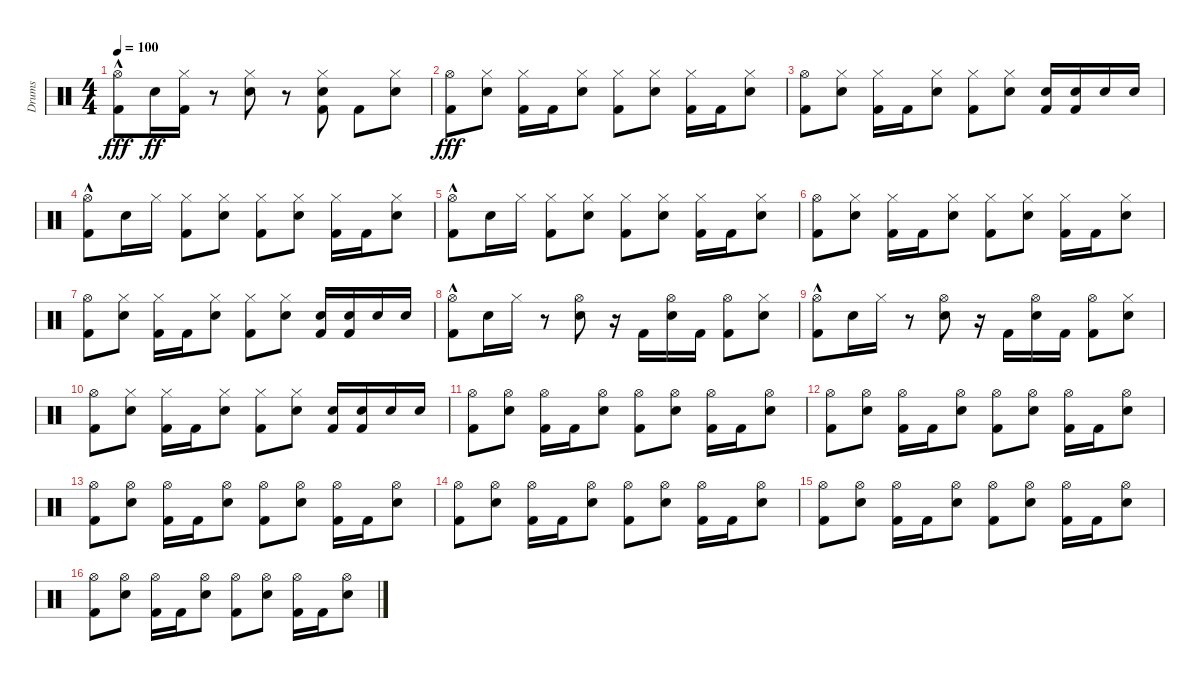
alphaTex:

\track ("Drums" "Drums") {instrument percussion}
\staff {score}
\articulation defaults
\ts (4 4)
\tempo 100
\clef neutral
\ks c
("Kick (hit) 2"{hac} "Hi-Hat (open)").8{dy fff} "Electric Snare (hit)".16{dy ff} ("Hi-Hat (closed)" "Kick (hit) 2").16 r.8 ("Hi-Hat (closed)" "Electric Snare (hit)").8 r.8 ("Hi-Hat (closed)" "Electric Snare (hit)" "Kick (hit) 2").8 "Kick (hit) 2".8 ("Hi-Hat (closed)" "Electric Snare (hit)").8 |
("Kick (hit) 2" "Hi-Hat (open)").8{dy fff} ("Hi-Hat (closed)" "Electric Snare (hit)").8 ("Hi-Hat (closed)" "Kick (hit) 2").16 "Kick (hit) 2".16 ("Hi-Hat (closed)" "Electric Snare (hit)").8 ("Kick (hit) 2" "Hi-Hat (closed)").8 ("Hi-Hat (closed)" "Electric Snare (hit)").8 ("Kick (hit) 2" "Hi-Hat (closed)").16 "Kick (hit) 2".16 ("Hi-Hat (closed)" "Electric Snare (hit)").8 |
("Kick (hit) 2" "Hi-Hat (open)").8 ("Hi-Hat (closed)" "Electric Snare (hit)").8 ("Hi-Hat (closed)" "Kick (hit) 2").16 "Kick (hit) 2".16 ("Hi-Hat (closed)" "Electric Snare (hit)").8 ("Kick (hit) 2" "Hi-Hat (closed)").8 ("Hi-Hat (closed)" "Electric Snare (hit)").8 ("Kick (hit) 2" "Electric Snare (hit)").16 ("Kick (hit) 2" "Electric Snare (hit)").16 "Electric Snare (hit)".16 "Electric Snare (hit)".16 |
("Hi-Hat (open)" "Kick (hit) 2"{hac}).8 "Electric Snare (hit)".16 "Hi-Hat (closed)".16 ("Hi-Hat (closed)" "Kick (hit) 2").8 ("Hi-Hat (closed)" "Electric Snare (hit)").8 ("Kick (hit) 2" "Hi-Hat (closed)").8 ("Hi-Hat (closed)" "Electric Snare (hit)").8 ("Kick (hit) 2" "Hi-Hat (closed)").16 "Kick (hit) 2".16 ("Hi-Hat (closed)" "Electric Snare (hit)").8 |
("Hi-Hat (open)" "Kick (hit) 2"{hac}).8 "Electric Snare (hit)".16 "Hi-Hat (closed)".16 ("Hi-Hat (closed)" "Kick (hit) 2").8 ("Hi-Hat (closed)" "Electric Snare (hit)").8 ("Kick (hit) 2" "Hi-Hat (closed)").8 ("Hi-Hat (closed)" "Electric Snare (hit)").8 ("Kick (hit) 2" "Hi-Hat (closed)").16 "Kick (hit) 2".16 ("Hi-Hat (closed)" "Electric Snare (hit)").8 |
("Kick (hit) 2" "Hi-Hat (open)").8 ("Hi-Hat (closed)" "Electric Snare (hit)").8 ("Hi-Hat (closed)" "Kick (hit) 2").16 "Kick (hit) 2".16 ("Hi-Hat (closed)" "Electric Snare (hit)").8 ("Kick (hit) 2" "Hi-Hat (closed)").8 ("Hi-Hat (closed)" "Electric Snare (hit)").8 ("Kick (hit) 2" "Hi-Hat (closed)").16 "Kick (hit) 2".16 ("Hi-Hat (closed)" "Electric Snare (hit)").8 |
("Kick (hit) 2" "Hi-Hat (open)").8 ("Hi-Hat (closed)" "Electric Snare (hit)").8 ("Hi-Hat (closed)" "Kick (hit) 2").16 "Kick (hit) 2".16 ("Hi-Hat (closed)" "Electric Snare (hit)").8 ("Kick (hit) 2" "Hi-Hat (closed)").8 ("Hi-Hat (closed)" "Electric Snare (hit)").8 ("Kick (hit) 2" "Electric Snare (hit)").16 ("Kick (hit) 2" "Electric Snare (hit)").16 "Electric Snare (hit)".16 "Electric Snare (hit)".16 |
("Hi-Hat (open)" "Kick (hit) 2"{hac}).8 "Electric Snare (hit)".16 "Hi-Hat (closed)".16 r.8 ("Hi-Hat (open)" "Electric Snare (hit)").8 r.16 "Kick (hit) 2".16 ("Hi-Hat (open)" "Electric Snare (hit)").16 "Kick (hit) 2".16 ("Kick (hit) 2" "Hi-Hat (open)").8 ("Hi-Hat (closed)" "Electric Snare (hit)").8 |
("Hi-Hat (open)" "Kick (hit) 2"{hac}).8 "Electric Snare (hit)".16 "Hi-Hat (closed)".16 r.8 ("Hi-Hat (open)" "Electric Snare (hit)").8 r.16 "Kick (hit) 2".16 ("Hi-Hat (open)" "Electric Snare (hit)").16 "Kick (hit) 2".16 ("Kick (hit) 2" "Hi-Hat (open)").8 ("Hi-Hat (closed)" "Electric Snare (hit)").8 |
("Kick (hit) 2" "Hi-Hat (open)").8 ("Hi-Hat (closed)" "Electric Snare (hit)").8 ("Hi-Hat (closed)" "Kick (hit) 2").16 "Kick (hit) 2".16 ("Hi-Hat (closed)" "Electric Snare (hit)").8 ("Kick (hit) 2" "Hi-Hat (closed)").8 ("Hi-Hat (closed)" "Electric Snare (hit)").8 ("Kick (hit) 2" "Electric Snare (hit)").16 ("Kick (hit) 2" "Electric Snare (hit)").16 "Electric Snare (hit)".16 "Electric Snare (hit)".16 |
("Kick (hit) 2" "Hi-Hat (open)").8 ("Hi-Hat (open)" "Electric Snare (hit)").8 ("Hi-Hat (open)" "Kick (hit) 2").16 "Kick (hit) 2".16 ("Hi-Hat (open)" "Electric Snare (hit)").8 ("Kick (hit) 2" "Hi-Hat (open)").8 ("Hi-Hat (open)" "Electric Snare (hit)").8 ("Kick (hit) 2" "Hi-Hat (open)").16 "Kick (hit) 2".16 ("Hi-Hat (open)" "Electric Snare (hit)").8 |
("Kick (hit) 2" "Hi-Hat (open)").8 ("Hi-Hat (open)" "Electric Snare (hit)").8 ("Hi-Hat (open)" "Kick (hit) 2").16 "Kick (hit) 2".16 ("Hi-Hat (open)" "Electric Snare (hit)").8 ("Kick (hit) 2" "Hi-Hat (open)").8 ("Hi-Hat (open)" "Electric Snare (hit)").8 ("Kick (hit) 2" "Hi-Hat (open)").16 "Kick (hit) 2".16 ("Hi-Hat (open)" "Electric Snare (hit)").8 |
("Kick (hit) 2" "Hi-Hat (open)").8 ("Hi-Hat (open)" "Electric Snare (hit)").8 ("Hi-Hat (open)" "Kick (hit) 2").16 "Kick (hit) 2".16 ("Hi-Hat (open)" "Electric Snare (hit)").8 ("Kick (hit) 2" "Hi-Hat (open)").8 ("Hi-Hat (open)" "Electric Snare (hit)").8 ("Hi-Hat (open)" "Kick (hit) 2").16 "Kick (hit) 2".16 ("Hi-Hat (open)" "Electric Snare (hit)").8 |
("Kick (hit) 2" "Hi-Hat (open)").8 ("Hi-Hat (open)" "Electric Snare (hit)").8 ("Kick (hit) 2" "Hi-Hat (open)").16 "Kick (hit) 2".16 ("Hi-Hat (open)" "Electric Snare (hit)").8 ("Kick (hit) 2" "Hi-Hat (open)").8 ("Hi-Hat (open)" "Electric Snare (hit)").8 ("Hi-Hat (open)" "Kick (hit) 2").16 "Kick (hit) 2".16 ("Hi-Hat (open)" "Electric Snare (hit)").8 |
("Kick (hit) 2" "Hi-Hat (open)").8 ("Hi-Hat (open)" "Electric Snare (hit)").8 ("Kick (hit) 2" "Hi-Hat (open)").16 "Kick (hit) 2".16 ("Hi-Hat (open)" "Electric Snare (hit)").8 ("Kick (hit) 2" "Hi-Hat (open)").8 ("Hi-Hat (open)" "Electric Snare (hit)").8 ("Hi-Hat (open)" "Kick (hit) 2").16 "Kick (hit) 2".16 ("Hi-Hat (open)" "Electric Snare (hit)").8 |
("Kick (hit) 2" "Hi-Hat (open)").8 ("Hi-Hat (open)" "Electric Snare (hit)").8 ("Hi-Hat (open)" "Kick (hit) 2").16 "Kick (hit) 2".16 ("Hi-Hat (open)" "Electric Snare (hit)").8 ("Kick (hit) 2" "Hi-Hat (open)").8 ("Hi-Hat (open)" "Electric Snare (hit)").8 ("Kick (hit) 2" "Hi-Hat (open)").16 "Kick (hit) 2".16 ("Hi-Hat (open)" "Electric Snare (hit)").8
